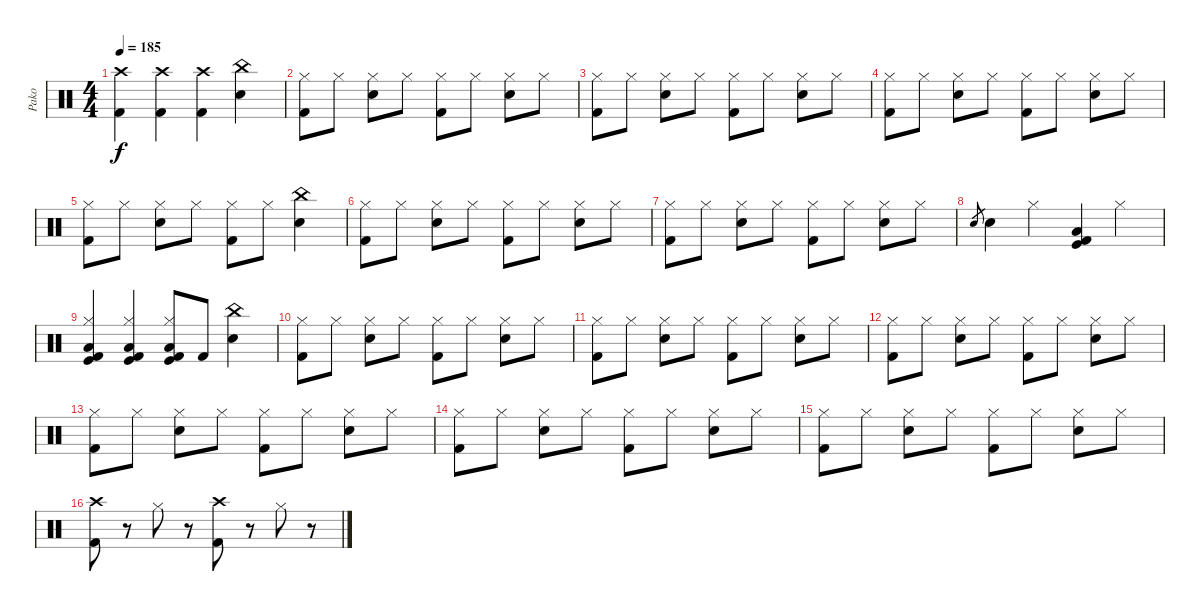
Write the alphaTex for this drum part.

\track ("Pako" "Pako") {instrument percussion}
\staff {score}
\articulation defaults
\ts (4 4)
\tempo 185
\clef neutral
\ks c
("Crash high (hit)" "Kick (hit) 2").4{dy f} ("Crash high (hit)" "Kick (hit) 2").4 ("Crash high (hit)" "Kick (hit) 2").4 ("China (hit)" "Snare (hit) 2").4 |
("Hi-Hat (closed)" "Kick (hit) 2").8 "Hi-Hat (closed)".8 ("Hi-Hat (closed)" "Snare (hit) 2").8 "Hi-Hat (closed)".8 ("Hi-Hat (closed)" "Kick (hit) 2").8 "Hi-Hat (closed)".8 ("Hi-Hat (closed)" "Snare (hit) 2").8 "Hi-Hat (closed)".8 |
("Hi-Hat (closed)" "Kick (hit) 2").8 "Hi-Hat (closed)".8 ("Hi-Hat (closed)" "Snare (hit) 2").8 "Hi-Hat (closed)".8 ("Hi-Hat (closed)" "Kick (hit) 2").8 "Hi-Hat (closed)".8 ("Hi-Hat (closed)" "Snare (hit) 2").8 "Hi-Hat (closed)".8 |
("Hi-Hat (closed)" "Kick (hit) 2").8 "Hi-Hat (closed)".8 ("Hi-Hat (closed)" "Snare (hit) 2").8 "Hi-Hat (closed)".8 ("Hi-Hat (closed)" "Kick (hit) 2").8 "Hi-Hat (closed)".8 ("Hi-Hat (closed)" "Snare (hit) 2").8 "Hi-Hat (closed)".8 |
("Hi-Hat (closed)" "Kick (hit) 2").8 "Hi-Hat (closed)".8 ("Hi-Hat (closed)" "Snare (hit) 2").8 "Hi-Hat (closed)".8 ("Hi-Hat (closed)" "Kick (hit) 2").8 "Hi-Hat (closed)".8 ("China (hit)" "Snare (hit) 2").4 |
("Hi-Hat (closed)" "Kick (hit) 2").8 "Hi-Hat (closed)".8 ("Hi-Hat (closed)" "Snare (hit) 2").8 "Hi-Hat (closed)".8 ("Hi-Hat (closed)" "Kick (hit) 2").8 "Hi-Hat (closed)".8 ("Hi-Hat (closed)" "Snare (hit) 2").8 "Hi-Hat (closed)".8 |
("Hi-Hat (closed)" "Kick (hit) 2").8 "Hi-Hat (closed)".8 ("Hi-Hat (closed)" "Snare (hit) 2").8 "Hi-Hat (closed)".8 ("Hi-Hat (closed)" "Kick (hit) 2").8 "Hi-Hat (closed)".8 ("Hi-Hat (closed)" "Snare (hit) 2").8 "Hi-Hat (closed)".8 |
"Snare (hit) 2".8{gr} "Snare (hit) 2".4 "Hi-Hat (closed)".4 ("Low Tom (hit)" "Kick (hit)" "Kick (hit) 2").4 "Hi-Hat (closed)".4 |
("Hi-Hat (closed)" "Low Tom (hit)" "Kick (hit)" "Kick (hit) 2").4 ("Hi-Hat (closed)" "Low Tom (hit)" "Kick (hit)" "Kick (hit) 2").4 ("Hi-Hat (closed)" "Low Tom (hit)" "Kick (hit)" "Kick (hit) 2").8 "Kick (hit) 2".8 ("China (hit)" "Snare (hit) 2").4 |
("Hi-Hat (closed)" "Kick (hit) 2").8 "Hi-Hat (closed)".8 ("Hi-Hat (closed)" "Snare (hit) 2").8 "Hi-Hat (closed)".8 ("Hi-Hat (closed)" "Kick (hit) 2").8 "Hi-Hat (closed)".8 ("Hi-Hat (closed)" "Snare (hit) 2").8 "Hi-Hat (closed)".8 |
("Hi-Hat (closed)" "Kick (hit) 2").8 "Hi-Hat (closed)".8 ("Hi-Hat (closed)" "Snare (hit) 2").8 "Hi-Hat (closed)".8 ("Hi-Hat (closed)" "Kick (hit) 2").8 "Hi-Hat (closed)".8 ("Hi-Hat (closed)" "Snare (hit) 2").8 "Hi-Hat (closed)".8 |
("Hi-Hat (closed)" "Kick (hit) 2").8 "Hi-Hat (closed)".8 ("Hi-Hat (closed)" "Snare (hit) 2").8 "Hi-Hat (closed)".8 ("Hi-Hat (closed)" "Kick (hit) 2").8 "Hi-Hat (closed)".8 ("Hi-Hat (closed)" "Snare (hit) 2").8 "Hi-Hat (closed)".8 |
("Hi-Hat (closed)" "Kick (hit) 2").8 "Hi-Hat (closed)".8 ("Hi-Hat (closed)" "Snare (hit) 2").8 "Hi-Hat (closed)".8 ("Hi-Hat (closed)" "Kick (hit) 2").8 "Hi-Hat (closed)".8 ("Hi-Hat (closed)" "Snare (hit) 2").8 "Hi-Hat (closed)".8 |
("Hi-Hat (closed)" "Kick (hit) 2").8 "Hi-Hat (closed)".8 ("Hi-Hat (closed)" "Snare (hit) 2").8 "Hi-Hat (closed)".8 ("Hi-Hat (closed)" "Kick (hit) 2").8 "Hi-Hat (closed)".8 ("Hi-Hat (closed)" "Snare (hit) 2").8 "Hi-Hat (closed)".8 |
("Hi-Hat (closed)" "Kick (hit) 2").8 "Hi-Hat (closed)".8 ("Hi-Hat (closed)" "Snare (hit) 2").8 "Hi-Hat (closed)".8 ("Hi-Hat (closed)" "Kick (hit) 2").8 "Hi-Hat (closed)".8 ("Hi-Hat (closed)" "Snare (hit) 2").8 "Hi-Hat (closed)".8 |
("Crash high (hit)" "Kick (hit) 2").8 r.8 "Hi-Hat (closed)".8 r.8 ("Crash high (hit)" "Kick (hit) 2").8 r.8 "Hi-Hat (closed)".8 r.8
